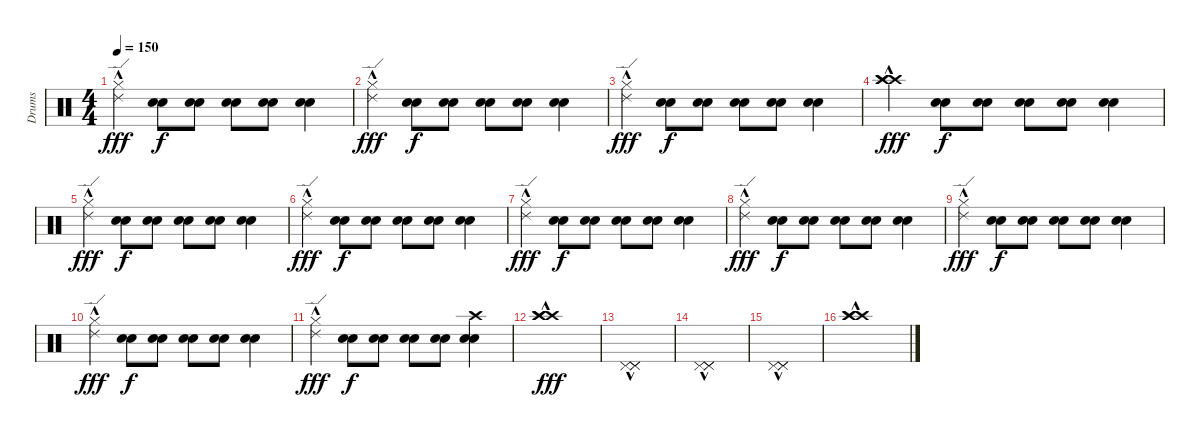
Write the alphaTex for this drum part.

\track ("Drums" "Drums") {instrument percussion}
\staff {score}
\articulation defaults
\ts (4 4)
\tempo 150
\clef neutral
\ks c
("Hi-Hat (closed)" "Ride (edge) 2"{hac}).4{dy fff} ("Electric Snare (hit)" "Electric Snare (hit)").8{dy f} ("Electric Snare (hit)" "Electric Snare (hit)").8 ("Electric Snare (hit)" "Electric Snare (hit)").8 ("Electric Snare (hit)" "Electric Snare (hit)").8 ("Electric Snare (hit)" "Electric Snare (hit)").4 |
("Hi-Hat (closed)" "Ride (edge) 2"{hac}).4{dy fff} ("Electric Snare (hit)" "Electric Snare (hit)").8{dy f} ("Electric Snare (hit)" "Electric Snare (hit)").8 ("Electric Snare (hit)" "Electric Snare (hit)").8 ("Electric Snare (hit)" "Electric Snare (hit)").8 ("Electric Snare (hit)" "Electric Snare (hit)").4 |
("Hi-Hat (closed)" "Ride (edge) 2"{hac}).4{dy fff} ("Electric Snare (hit)" "Electric Snare (hit)").8{dy f} ("Electric Snare (hit)" "Electric Snare (hit)").8 ("Electric Snare (hit)" "Electric Snare (hit)").8 ("Electric Snare (hit)" "Electric Snare (hit)").8 ("Electric Snare (hit)" "Electric Snare (hit)").4 |
("Crash high (hit)"{hac} "Crash high (hit)"{hac} "Crash high (hit)"{hac}).4{dy fff} ("Electric Snare (hit)" "Electric Snare (hit)").8{dy f} ("Electric Snare (hit)" "Electric Snare (hit)").8 ("Electric Snare (hit)" "Electric Snare (hit)").8 ("Electric Snare (hit)" "Electric Snare (hit)").8 ("Electric Snare (hit)" "Electric Snare (hit)").4 |
("Hi-Hat (closed)" "Ride (edge) 2"{hac}).4{dy fff} ("Electric Snare (hit)" "Electric Snare (hit)").8{dy f} ("Electric Snare (hit)" "Electric Snare (hit)").8 ("Electric Snare (hit)" "Electric Snare (hit)").8 ("Electric Snare (hit)" "Electric Snare (hit)").8 ("Electric Snare (hit)" "Electric Snare (hit)").4 |
("Hi-Hat (closed)" "Ride (edge) 2"{hac}).4{dy fff} ("Electric Snare (hit)" "Electric Snare (hit)").8{dy f} ("Electric Snare (hit)" "Electric Snare (hit)").8 ("Electric Snare (hit)" "Electric Snare (hit)").8 ("Electric Snare (hit)" "Electric Snare (hit)").8 ("Electric Snare (hit)" "Electric Snare (hit)").4 |
("Hi-Hat (closed)" "Ride (edge) 2"{hac}).4{dy fff} ("Electric Snare (hit)" "Electric Snare (hit)").8{dy f} ("Electric Snare (hit)" "Electric Snare (hit)").8 ("Electric Snare (hit)" "Electric Snare (hit)").8 ("Electric Snare (hit)" "Electric Snare (hit)").8 ("Electric Snare (hit)" "Electric Snare (hit)").4 |
("Hi-Hat (closed)" "Ride (edge) 2"{hac}).4{dy fff} ("Electric Snare (hit)" "Electric Snare (hit)").8{dy f} ("Electric Snare (hit)" "Electric Snare (hit)").8 ("Electric Snare (hit)" "Electric Snare (hit)").8 ("Electric Snare (hit)" "Electric Snare (hit)").8 ("Electric Snare (hit)" "Electric Snare (hit)").4 |
("Hi-Hat (closed)" "Ride (edge) 2"{hac}).4{dy fff} ("Electric Snare (hit)" "Electric Snare (hit)").8{dy f} ("Electric Snare (hit)" "Electric Snare (hit)").8 ("Electric Snare (hit)" "Electric Snare (hit)").8 ("Electric Snare (hit)" "Electric Snare (hit)").8 ("Electric Snare (hit)" "Electric Snare (hit)").4 |
("Hi-Hat (closed)" "Ride (edge) 2"{hac}).4{dy fff} ("Electric Snare (hit)" "Electric Snare (hit)").8{dy f} ("Electric Snare (hit)" "Electric Snare (hit)").8 ("Electric Snare (hit)" "Electric Snare (hit)").8 ("Electric Snare (hit)" "Electric Snare (hit)").8 ("Electric Snare (hit)" "Electric Snare (hit)").4 |
("Hi-Hat (closed)" "Ride (edge) 2"{hac}).4{dy fff} ("Electric Snare (hit)" "Electric Snare (hit)").8{dy f} ("Electric Snare (hit)" "Electric Snare (hit)").8 ("Electric Snare (hit)" "Electric Snare (hit)").8 ("Electric Snare (hit)" "Electric Snare (hit)").8 ("Electric Snare (hit)" "Electric Snare (hit)" "Crash high (hit)").4 |
("Crash high (hit)"{hac} "Crash high (hit)"{hac} "Crash high (hit)"{hac}).1{dy fff} |
("Pedal Hi-Hat (hit)"{hac} "Pedal Hi-Hat (hit)"{hac} "Pedal Hi-Hat (hit)"{hac}).1 |
("Pedal Hi-Hat (hit)"{hac} "Pedal Hi-Hat (hit)"{hac} "Pedal Hi-Hat (hit)"{hac}).1 |
("Pedal Hi-Hat (hit)"{hac} "Pedal Hi-Hat (hit)"{hac} "Pedal Hi-Hat (hit)"{hac}).1 |
("Crash high (hit)"{hac} "Crash high (hit)"{hac} "Crash high (hit)"{hac}).1
